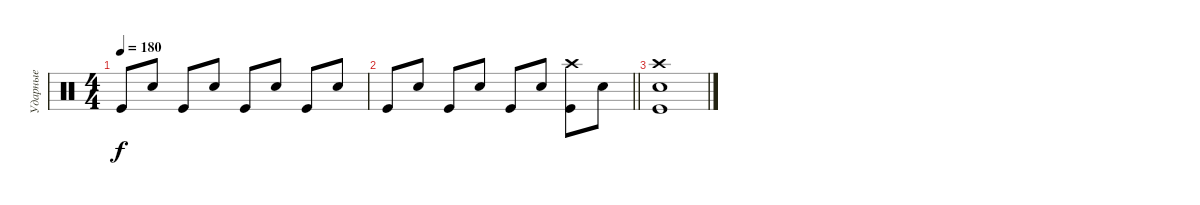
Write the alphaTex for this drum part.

\track ("Ударные" "Ударные") {instrument percussion}
\staff {score}
\articulation defaults
\ts (4 4)
\tempo 180
\clef neutral
\ks c "Kick (hit)".8{dy f} "Snare (hit) 2".8 "Kick (hit)".8 "Snare (hit) 2".8 "Kick (hit)".8 "Snare (hit) 2".8 "Kick (hit)".8 "Snare (hit) 2".8
|
\barLineRight lightlight "Kick (hit)".8 "Snare (hit) 2".8 "Kick (hit)".8 "Snare (hit) 2".8 "Kick (hit)".8 "Snare (hit) 2".8
("Crash high (hit)" "Kick (hit)").8 "Snare (hit) 2".8 |
("Crash high (hit)" "Snare (hit) 2" "Kick (hit)").1
